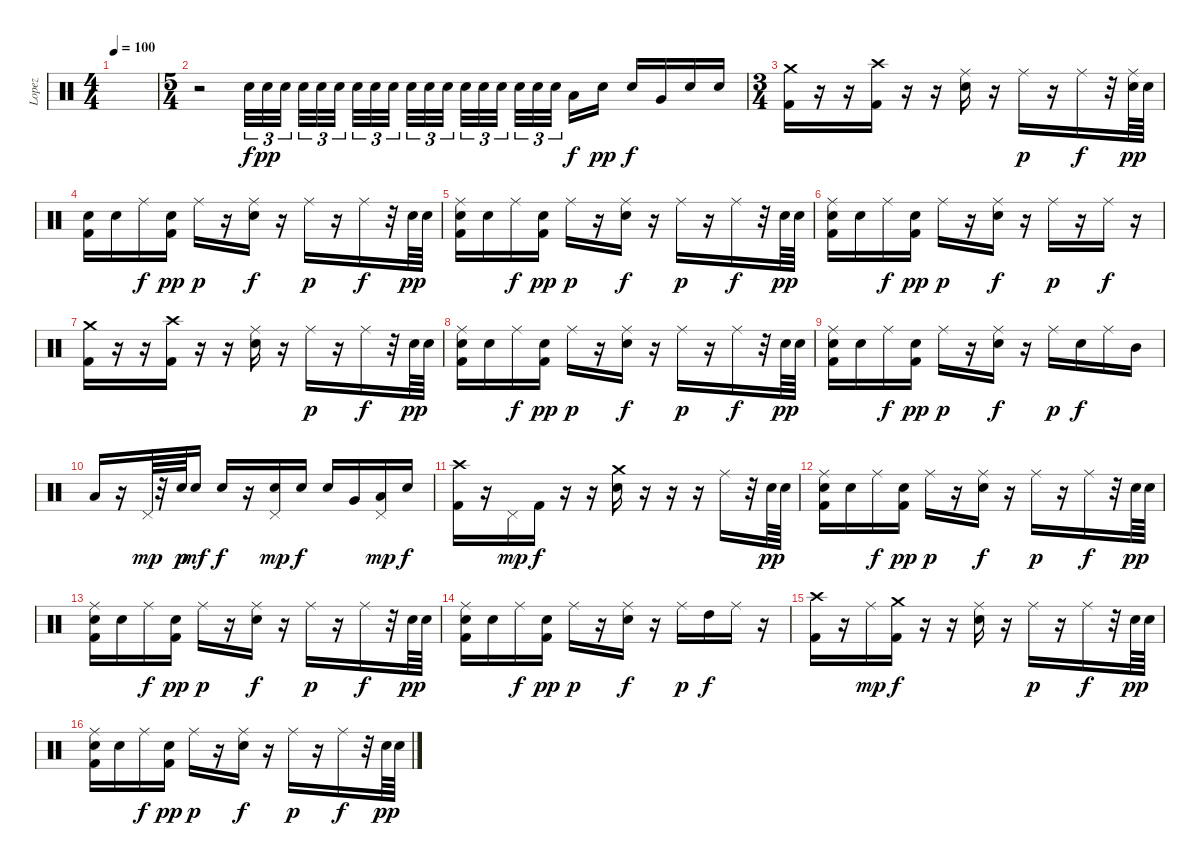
\track ("Lopez" "Lopez") {instrument percussion}
\staff {score}
\articulation defaults
\ts (4 4)
\tempo 100
\clef neutral
\ks c
|
\ts (5 4)
r.2 "Snare (hit) 2".32{tu (3 2)} "Snare (hit) 2".32{tu (3 2) dy pp} "Snare (hit) 2".32{tu (3 2)} "Snare (hit) 2".32{tu (3 2)} "Snare (hit) 2".32{tu (3 2)} "Snare (hit) 2".32{tu (3 2)} "Snare (hit) 2".32{tu (3 2)} "Snare (hit) 2".32{tu (3 2)} "Snare (hit) 2".32{tu (3 2)} "Snare (hit) 2".32{tu (3 2)} "Snare (hit) 2".32{tu (3 2)} "Snare (hit) 2".32{tu (3 2)} "Snare (hit) 2".32{tu (3 2)} "Snare (hit) 2".32{tu (3 2)} "Snare (hit) 2".32{tu (3 2)} "Snare (hit) 2".32{tu (3 2)} "Snare (hit) 2".32{tu (3 2)} "Snare (hit) 2".32{tu (3 2)} "Low Tom (hit)".16{dy f} "Snare (hit) 2".16{dy pp} "Snare (hit) 2".16{dy f} "Very Low Tom (hit)".16 "Snare (hit) 2".16 "Snare (hit) 2".16 |
\ts (3 4)
("Crash medium (hit)" "Kick (hit) 2").16 r.16 r.16 ("Crash high (hit)" "Kick (hit) 2").16 r.16 r.16 ("Ride (middle)" "Snare (hit) 2").16 r.16 "Ride (middle)".16{dy p} r.16 "Ride (middle)".16{dy f} r.32 ("Ride (middle)" "Snare (hit) 2").64{dy pp} "Snare (hit) 2".64 |
("Snare (hit) 2" "Kick (hit) 2").16 "Snare (hit) 2".16 "Ride (middle)".16{dy f} ("Snare (hit) 2" "Kick (hit) 2").16{dy pp} "Ride (middle)".16{dy p} r.16 ("Ride (middle)" "Snare (hit) 2").16{dy f} r.16 "Ride (middle)".16{dy p} r.16 "Ride (middle)".16{dy f} r.32 "Snare (hit) 2".64{dy pp} "Snare (hit) 2".64 |
("Ride (middle)" "Snare (hit) 2" "Kick (hit) 2").16 "Snare (hit) 2".16 "Ride (middle)".16{dy f} ("Snare (hit) 2" "Kick (hit) 2").16{dy pp} "Ride (middle)".16{dy p} r.16 ("Ride (middle)" "Snare (hit) 2").16{dy f} r.16 "Ride (middle)".16{dy p} r.16 "Ride (middle)".16{dy f} r.32 "Snare (hit) 2".64{dy pp} "Snare (hit) 2".64 |
("Ride (middle)" "Snare (hit) 2" "Kick (hit) 2").16 "Snare (hit) 2".16 "Ride (middle)".16{dy f} ("Snare (hit) 2" "Kick (hit) 2").16{dy pp} "Ride (middle)".16{dy p} r.16 ("Ride (middle)" "Snare (hit) 2").16{dy f} r.16 "Ride (middle)".16{dy p} r.16 "Ride (middle)".16{dy f} r.16 |
("Crash medium (hit)" "Kick (hit) 2").16 r.16 r.16 ("Crash high (hit)" "Kick (hit) 2").16 r.16 r.16 ("Ride (middle)" "Snare (hit) 2").16 r.16 "Ride (middle)".16{dy p} r.16 "Ride (middle)".16{dy f} r.32 "Snare (hit) 2".64{dy pp} "Snare (hit) 2".64 |
("Ride (middle)" "Snare (hit) 2" "Kick (hit) 2").16 "Snare (hit) 2".16 "Ride (middle)".16{dy f} ("Snare (hit) 2" "Kick (hit) 2").16{dy pp} "Ride (middle)".16{dy p} r.16 ("Ride (middle)" "Snare (hit) 2").16{dy f} r.16 "Ride (middle)".16{dy p} r.16 "Ride (middle)".16{dy f} r.32 "Snare (hit) 2".64{dy pp} "Snare (hit) 2".64 |
("Ride (middle)" "Snare (hit) 2" "Kick (hit) 2").16 "Snare (hit) 2".16 "Ride (middle)".16{dy f} ("Snare (hit) 2" "Kick (hit) 2").16{dy pp} "Ride (middle)".16{dy p} r.16 ("Ride (middle)" "Snare (hit) 2").16{dy f} r.16 "Ride (middle)".16{dy p} "Snare (hit) 2".16{dy f} "Ride (middle)".16 "Mid Tom (hit)".16 |
"Low Tom (hit)".16 r.16 "Pedal Hi-Hat (hit)".64{dy mp} r.32 "Snare (hit) 2".64{dy p} "Snare (hit) 2".16{dy mf} "Snare (hit) 2".16{dy f} r.16 ("Pedal Hi-Hat (hit)" "Snare (hit) 2").16{dy mp} "Snare (hit) 2".16{dy f} "Snare (hit) 2".16 "Very Low Tom (hit)".16 ("Pedal Hi-Hat (hit)" "Low Floor Tom (hit)").16{dy mp} "Snare (hit) 2".16{dy f} |
("Crash high (hit)" "Kick (hit) 2").16 r.16 "Pedal Hi-Hat (hit)".16{dy mp} "Kick (hit) 2".16{dy f} r.16 r.16 ("Crash medium (hit)" "Snare (hit) 2").16 r.16 r.16 r.16 "Ride (middle)".16 r.32 "Snare (hit) 2".64{dy pp} "Snare (hit) 2".64 |
("Ride (middle)" "Snare (hit) 2" "Kick (hit) 2").16 "Snare (hit) 2".16 "Ride (middle)".16{dy f} ("Snare (hit) 2" "Kick (hit) 2").16{dy pp} "Ride (middle)".16{dy p} r.16 ("Ride (middle)" "Snare (hit) 2").16{dy f} r.16 "Ride (middle)".16{dy p} r.16 "Ride (middle)".16{dy f} r.32 "Snare (hit) 2".64{dy pp} "Snare (hit) 2".64 |
("Ride (middle)" "Snare (hit) 2" "Kick (hit) 2").16 "Snare (hit) 2".16 "Ride (middle)".16{dy f} ("Snare (hit) 2" "Kick (hit) 2").16{dy pp} "Ride (middle)".16{dy p} r.16 ("Ride (middle)" "Snare (hit) 2").16{dy f} r.16 "Ride (middle)".16{dy p} r.16 "Ride (middle)".16{dy f} r.32 "Snare (hit) 2".64{dy pp} "Snare (hit) 2".64 |
("Ride (middle)" "Snare (hit) 2" "Kick (hit) 2").16 "Snare (hit) 2".16 "Ride (middle)".16{dy f} ("Snare (hit) 2" "Kick (hit) 2").16{dy pp} "Ride (middle)".16{dy p} r.16 ("Ride (middle)" "Snare (hit) 2").16{dy f} r.16 "Ride (middle)".16{dy p} "High Tom (hit)".16{dy f} "Ride (middle)".16 r.16 |
("Crash high (hit)" "Kick (hit) 2").16 r.16 "Ride (middle)".16{dy mp} ("Crash medium (hit)" "Kick (hit) 2").16{dy f} r.16 r.16 ("Ride (middle)" "Snare (hit) 2").16 r.16 "Ride (middle)".16{dy p} r.16 "Ride (middle)".16{dy f} r.32 "Snare (hit) 2".64{dy pp} "Snare (hit) 2".64 |
("Ride (middle)" "Snare (hit) 2" "Kick (hit) 2").16 "Snare (hit) 2".16 "Ride (middle)".16{dy f} ("Snare (hit) 2" "Kick (hit) 2").16{dy pp} "Ride (middle)".16{dy p} r.16 ("Ride (middle)" "Snare (hit) 2").16{dy f} r.16 "Ride (middle)".16{dy p} r.16 "Ride (middle)".16{dy f} r.32 "Snare (hit) 2".64{dy pp} "Snare (hit) 2".64
